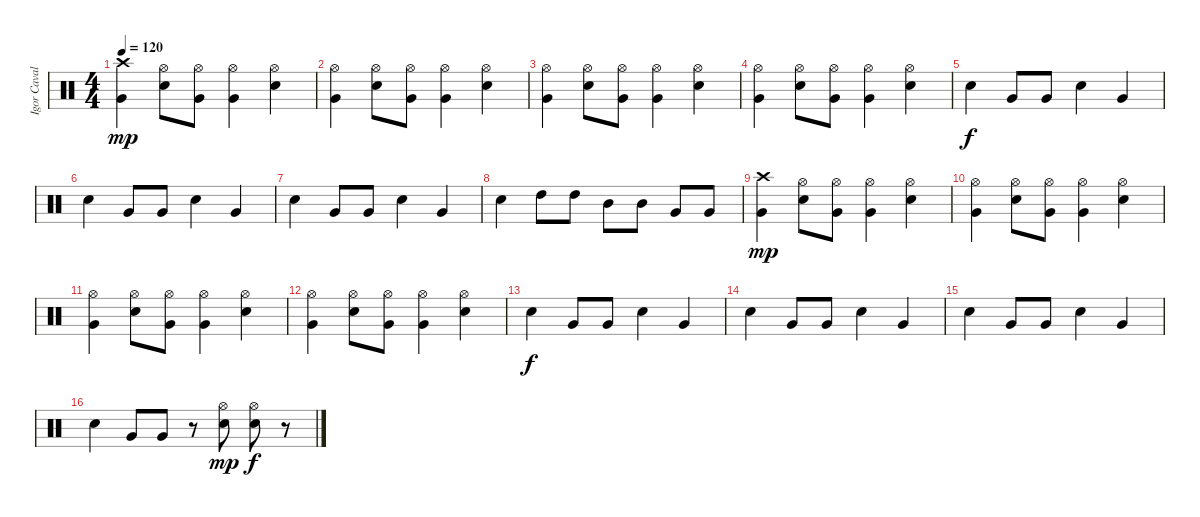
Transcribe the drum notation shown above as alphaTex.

\track ("Igor Cavalera" "Igor Caval") {instrument percussion}
\staff {score}
\articulation defaults
\ts (4 4)
\tempo 120
\clef neutral
\ks c
("Crash high (hit)" "Very Low Tom (hit)").4{dy mp} ("Hi-Hat (open)" "Snare (hit) 2").8 ("Hi-Hat (open)" "Very Low Tom (hit)").8 ("Hi-Hat (open)" "Very Low Tom (hit)").4 ("Hi-Hat (open)" "Snare (hit) 2").4 |
("Hi-Hat (open)" "Very Low Tom (hit)").4 ("Hi-Hat (open)" "Snare (hit) 2").8 ("Hi-Hat (open)" "Very Low Tom (hit)").8 ("Hi-Hat (open)" "Very Low Tom (hit)").4 ("Hi-Hat (open)" "Snare (hit) 2").4 |
("Hi-Hat (open)" "Very Low Tom (hit)").4 ("Hi-Hat (open)" "Snare (hit) 2").8 ("Hi-Hat (open)" "Very Low Tom (hit)").8 ("Hi-Hat (open)" "Very Low Tom (hit)").4 ("Hi-Hat (open)" "Snare (hit) 2").4 |
("Hi-Hat (open)" "Very Low Tom (hit)").4 ("Hi-Hat (open)" "Snare (hit) 2").8 ("Hi-Hat (open)" "Very Low Tom (hit)").8 ("Hi-Hat (open)" "Very Low Tom (hit)").4 ("Hi-Hat (open)" "Snare (hit) 2").4 |
"Snare (hit) 2".4{dy f} "Very Low Tom (hit)".8 "Very Low Tom (hit)".8 "Snare (hit) 2".4 "Very Low Tom (hit)".4 |
"Snare (hit) 2".4 "Very Low Tom (hit)".8 "Very Low Tom (hit)".8 "Snare (hit) 2".4 "Very Low Tom (hit)".4 |
"Snare (hit) 2".4 "Very Low Tom (hit)".8 "Very Low Tom (hit)".8 "Snare (hit) 2".4 "Very Low Tom (hit)".4 |
"Snare (hit) 2".4 "High Tom (hit)".8 "High Tom (hit)".8 "Mid Tom (hit)".8 "Mid Tom (hit)".8 "Very Low Tom (hit)".8 "Very Low Tom (hit)".8 |
("Crash high (hit)" "Very Low Tom (hit)").4{dy mp} ("Hi-Hat (open)" "Snare (hit) 2").8 ("Hi-Hat (open)" "Very Low Tom (hit)").8 ("Hi-Hat (open)" "Very Low Tom (hit)").4 ("Hi-Hat (open)" "Snare (hit) 2").4 |
("Hi-Hat (open)" "Very Low Tom (hit)").4 ("Hi-Hat (open)" "Snare (hit) 2").8 ("Hi-Hat (open)" "Very Low Tom (hit)").8 ("Hi-Hat (open)" "Very Low Tom (hit)").4 ("Hi-Hat (open)" "Snare (hit) 2").4 |
("Hi-Hat (open)" "Very Low Tom (hit)").4 ("Hi-Hat (open)" "Snare (hit) 2").8 ("Hi-Hat (open)" "Very Low Tom (hit)").8 ("Hi-Hat (open)" "Very Low Tom (hit)").4 ("Hi-Hat (open)" "Snare (hit) 2").4 |
("Hi-Hat (open)" "Very Low Tom (hit)").4 ("Hi-Hat (open)" "Snare (hit) 2").8 ("Hi-Hat (open)" "Very Low Tom (hit)").8 ("Hi-Hat (open)" "Very Low Tom (hit)").4 ("Hi-Hat (open)" "Snare (hit) 2").4 |
"Snare (hit) 2".4{dy f} "Very Low Tom (hit)".8 "Very Low Tom (hit)".8 "Snare (hit) 2".4 "Very Low Tom (hit)".4 |
"Snare (hit) 2".4 "Very Low Tom (hit)".8 "Very Low Tom (hit)".8 "Snare (hit) 2".4 "Very Low Tom (hit)".4 |
"Snare (hit) 2".4 "Very Low Tom (hit)".8 "Very Low Tom (hit)".8 "Snare (hit) 2".4 "Very Low Tom (hit)".4 |
"Snare (hit) 2".4 "Very Low Tom (hit)".8 "Very Low Tom (hit)".8 r.8 ("Hi-Hat (open)" "Snare (hit) 2").8{dy mp} ("Hi-Hat (open)" "Snare (hit) 2").8{dy f} r.8
